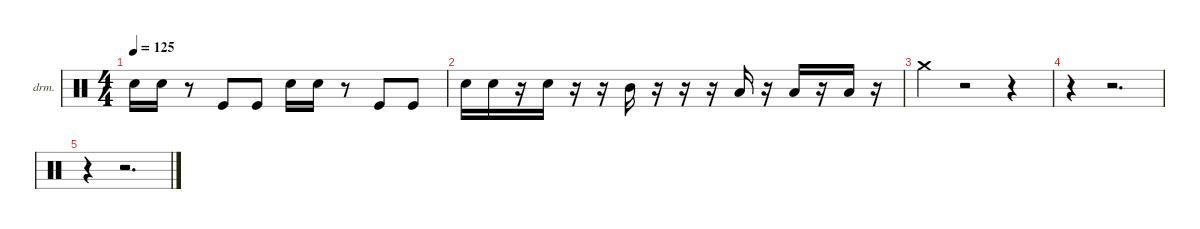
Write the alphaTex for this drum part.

\defaultSystemsLayout 4
\hideDynamics
\bracketExtendMode nobrackets
\firstSystemTrackNameOrientation horizontal
\otherSystemsTrackNameOrientation horizontal
\track ("Drum" "drm.") {instrument percussion}
\staff {score}
\articulation defaults
\ts (4 4)
\tempo 125
\clef neutral
\ks c "Snare (hit) 2".16{dy f} "Snare (hit) 2".16
r.8 "Kick (hit)".8 "Kick (hit)".8 "Snare (hit) 2".16 "Snare (hit) 2".16 r.8 "Kick (hit)".8 "Kick (hit)".8 |
"Snare (hit) 2".16 "Snare (hit) 2".16 r.16 "Snare (hit) 2".16 r.16 r.16 "Mid Tom (hit)".16 r.16 r.16 r.16 "Low Tom (hit)".16 r.16 "Low Floor Tom (hit)".16 r.16 "Low Floor Tom (hit)".16 r.16 |
"Crash medium (hit)".4 r.2 r.4 |
r.4 r.2{d} |
r.4 r.2{d}
